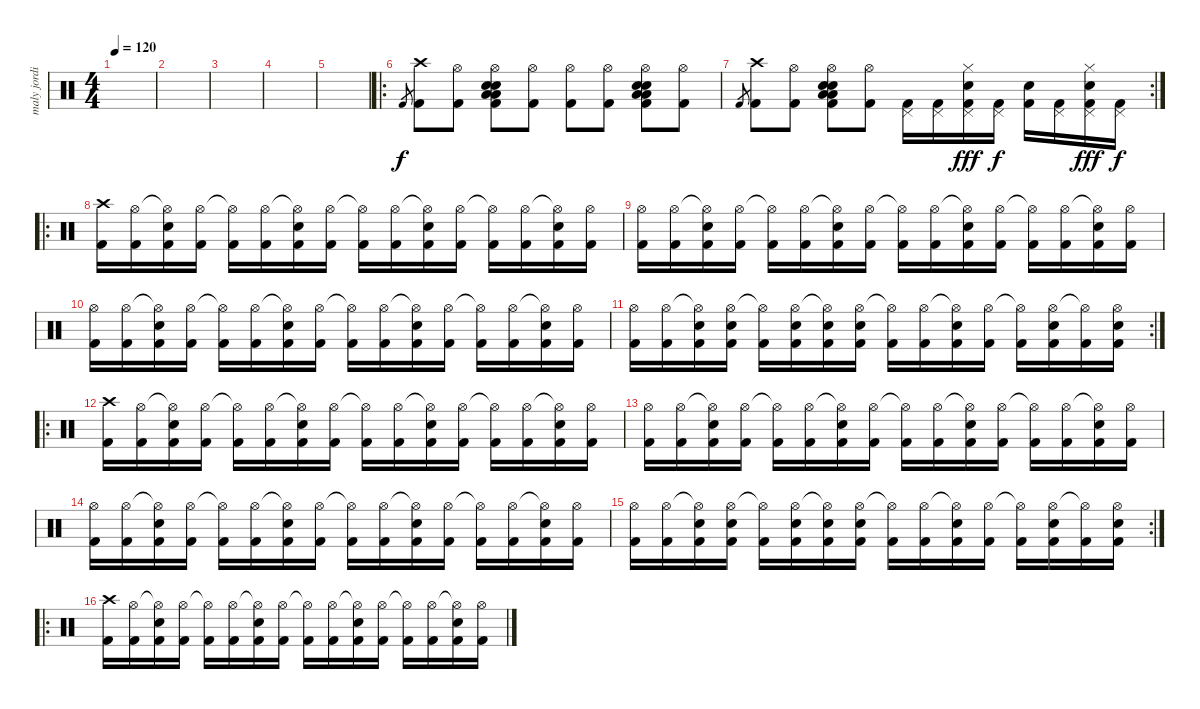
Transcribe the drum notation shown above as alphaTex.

\track ("maly jordison - Battery" "maly jordi") {instrument percussion}
\staff {score}
\articulation defaults
\ts (4 4)
\tempo 120
\clef neutral
\ks c
|
|
|
|
|
\ro "Kick (hit) 2".8{gr}
("Crash high (hit)" "Kick (hit) 2").8 ("Hi-Hat (open)" "Kick (hit) 2").8 ("Hi-Hat (open)" "Low Floor Tom (hit)" "Kick (hit) 2" "Electric Snare (hit)" "Low Floor Tom (hit)" "Electric Snare (hit)").8 ("Hi-Hat (open)" "Kick (hit) 2").8 ("Hi-Hat (open)" "Kick (hit) 2").8 ("Hi-Hat (open)" "Kick (hit) 2").8 ("Hi-Hat (open)" "Low Floor Tom (hit)" "Kick (hit) 2" "Electric Snare (hit)" "Low Floor Tom (hit)" "Electric Snare (hit)").8 ("Hi-Hat (open)" "Kick (hit) 2").8 |
\rc 2 "Kick (hit) 2".8{gr}
("Crash high (hit)" "Kick (hit) 2").8 ("Hi-Hat (open)" "Kick (hit) 2").8 ("Hi-Hat (open)" "Low Floor Tom (hit)" "Kick (hit) 2" "Electric Snare (hit)" "Low Floor Tom (hit)" "Electric Snare (hit)").8 ("Hi-Hat (open)" "Kick (hit) 2").8 ("Pedal Hi-Hat (hit)" "Kick (hit) 2").16 ("Pedal Hi-Hat (hit)" "Kick (hit) 2").16 ("Pedal Hi-Hat (hit)" "Hi-Hat (closed)" "Electric Snare (hit)" "Kick (hit) 2").16{dy fff} ("Pedal Hi-Hat (hit)" "Kick (hit) 2").16{dy f} ("Snare (hit)" "Kick (hit) 2").16 ("Pedal Hi-Hat (hit)" "Kick (hit) 2").16 ("Pedal Hi-Hat (hit)" "Hi-Hat (closed)" "Electric Snare (hit)" "Kick (hit) 2").16{dy fff} ("Pedal Hi-Hat (hit)" "Kick (hit) 2").16{dy f} |
\ro
("Crash high (hit)" "Kick (hit) 2").16 ("Hi-Hat (open)" "Kick (hit) 2").16 ("Hi-Hat (open)"{t} "Electric Snare (hit)" "Kick (hit) 2").16 ("Hi-Hat (open)" "Kick (hit) 2").16 ("Hi-Hat (open)"{t} "Kick (hit) 2").16 ("Hi-Hat (open)" "Kick (hit) 2").16 ("Hi-Hat (open)"{t} "Electric Snare (hit)" "Kick (hit) 2").16 ("Hi-Hat (open)" "Kick (hit) 2").16 ("Hi-Hat (open)"{t} "Kick (hit) 2").16 ("Hi-Hat (open)" "Kick (hit) 2").16 ("Hi-Hat (open)"{t} "Electric Snare (hit)" "Kick (hit) 2").16 ("Hi-Hat (open)" "Kick (hit) 2").16 ("Hi-Hat (open)"{t} "Kick (hit) 2").16 ("Hi-Hat (open)" "Kick (hit) 2").16 ("Hi-Hat (open)"{t} "Electric Snare (hit)" "Kick (hit) 2").16 ("Hi-Hat (open)" "Kick (hit) 2").16 |
("Hi-Hat (open)" "Kick (hit) 2").16 ("Hi-Hat (open)" "Kick (hit) 2").16 ("Hi-Hat (open)"{t} "Electric Snare (hit)" "Kick (hit) 2").16 ("Hi-Hat (open)" "Kick (hit) 2").16 ("Hi-Hat (open)"{t} "Kick (hit) 2").16 ("Hi-Hat (open)" "Kick (hit) 2").16 ("Hi-Hat (open)"{t} "Electric Snare (hit)" "Kick (hit) 2").16 ("Hi-Hat (open)" "Kick (hit) 2").16 ("Hi-Hat (open)"{t} "Kick (hit) 2").16 ("Hi-Hat (open)" "Kick (hit) 2").16 ("Hi-Hat (open)"{t} "Electric Snare (hit)" "Kick (hit) 2").16 ("Hi-Hat (open)" "Kick (hit) 2").16 ("Hi-Hat (open)"{t} "Kick (hit) 2").16 ("Hi-Hat (open)" "Kick (hit) 2").16 ("Hi-Hat (open)"{t} "Electric Snare (hit)" "Kick (hit) 2").16 ("Hi-Hat (open)" "Kick (hit) 2").16 |
("Hi-Hat (open)" "Kick (hit) 2").16 ("Hi-Hat (open)" "Kick (hit) 2").16 ("Hi-Hat (open)"{t} "Electric Snare (hit)" "Kick (hit) 2").16 ("Hi-Hat (open)" "Kick (hit) 2").16 ("Hi-Hat (open)"{t} "Kick (hit) 2").16 ("Hi-Hat (open)" "Kick (hit) 2").16 ("Hi-Hat (open)"{t} "Electric Snare (hit)" "Kick (hit) 2").16 ("Hi-Hat (open)" "Kick (hit) 2").16 ("Hi-Hat (open)"{t} "Kick (hit) 2").16 ("Hi-Hat (open)" "Kick (hit) 2").16 ("Hi-Hat (open)"{t} "Electric Snare (hit)" "Kick (hit) 2").16 ("Hi-Hat (open)" "Kick (hit) 2").16 ("Hi-Hat (open)"{t} "Kick (hit) 2").16 ("Hi-Hat (open)" "Kick (hit) 2").16 ("Hi-Hat (open)"{t} "Electric Snare (hit)" "Kick (hit) 2").16 ("Hi-Hat (open)" "Kick (hit) 2").16 |
\rc 2
("Hi-Hat (open)" "Kick (hit) 2").16 ("Hi-Hat (open)" "Kick (hit) 2").16 ("Hi-Hat (open)"{t} "Electric Snare (hit)" "Kick (hit) 2").16 ("Hi-Hat (open)" "Electric Snare (hit)" "Kick (hit) 2").16 ("Hi-Hat (open)"{t} "Kick (hit) 2").16 ("Hi-Hat (open)" "Electric Snare (hit)" "Kick (hit) 2").16 ("Hi-Hat (open)"{t} "Electric Snare (hit)" "Kick (hit) 2").16 ("Hi-Hat (open)" "Electric Snare (hit)" "Kick (hit) 2").16 ("Hi-Hat (open)"{t} "Kick (hit) 2").16 ("Hi-Hat (open)" "Kick (hit) 2").16 ("Hi-Hat (open)"{t} "Electric Snare (hit)" "Kick (hit) 2").16 ("Hi-Hat (open)" "Kick (hit) 2").16 ("Hi-Hat (open)"{t} "Kick (hit) 2").16 ("Hi-Hat (open)" "Electric Snare (hit)" "Kick (hit) 2").16 ("Hi-Hat (open)"{t} "Kick (hit) 2").16 ("Hi-Hat (open)" "Electric Snare (hit)" "Kick (hit) 2").16 |
\ro
("Crash high (hit)" "Kick (hit) 2").16 ("Hi-Hat (open)" "Kick (hit) 2").16 ("Hi-Hat (open)"{t} "Electric Snare (hit)" "Kick (hit) 2").16 ("Hi-Hat (open)" "Kick (hit) 2").16 ("Hi-Hat (open)"{t} "Kick (hit) 2").16 ("Hi-Hat (open)" "Kick (hit) 2").16 ("Hi-Hat (open)"{t} "Electric Snare (hit)" "Kick (hit) 2").16 ("Hi-Hat (open)" "Kick (hit) 2").16 ("Hi-Hat (open)"{t} "Kick (hit) 2").16 ("Hi-Hat (open)" "Kick (hit) 2").16 ("Hi-Hat (open)"{t} "Electric Snare (hit)" "Kick (hit) 2").16 ("Hi-Hat (open)" "Kick (hit) 2").16 ("Hi-Hat (open)"{t} "Kick (hit) 2").16 ("Hi-Hat (open)" "Kick (hit) 2").16 ("Hi-Hat (open)"{t} "Electric Snare (hit)" "Kick (hit) 2").16 ("Hi-Hat (open)" "Kick (hit) 2").16 |
("Hi-Hat (open)" "Kick (hit) 2").16 ("Hi-Hat (open)" "Kick (hit) 2").16 ("Hi-Hat (open)"{t} "Electric Snare (hit)" "Kick (hit) 2").16 ("Hi-Hat (open)" "Kick (hit) 2").16 ("Hi-Hat (open)"{t} "Kick (hit) 2").16 ("Hi-Hat (open)" "Kick (hit) 2").16 ("Hi-Hat (open)"{t} "Electric Snare (hit)" "Kick (hit) 2").16 ("Hi-Hat (open)" "Kick (hit) 2").16 ("Hi-Hat (open)"{t} "Kick (hit) 2").16 ("Hi-Hat (open)" "Kick (hit) 2").16 ("Hi-Hat (open)"{t} "Electric Snare (hit)" "Kick (hit) 2").16 ("Hi-Hat (open)" "Kick (hit) 2").16 ("Hi-Hat (open)"{t} "Kick (hit) 2").16 ("Hi-Hat (open)" "Kick (hit) 2").16 ("Hi-Hat (open)"{t} "Electric Snare (hit)" "Kick (hit) 2").16 ("Hi-Hat (open)" "Kick (hit) 2").16 |
("Hi-Hat (open)" "Kick (hit) 2").16 ("Hi-Hat (open)" "Kick (hit) 2").16 ("Hi-Hat (open)"{t} "Electric Snare (hit)" "Kick (hit) 2").16 ("Hi-Hat (open)" "Kick (hit) 2").16 ("Hi-Hat (open)"{t} "Kick (hit) 2").16 ("Hi-Hat (open)" "Kick (hit) 2").16 ("Hi-Hat (open)"{t} "Electric Snare (hit)" "Kick (hit) 2").16 ("Hi-Hat (open)" "Kick (hit) 2").16 ("Hi-Hat (open)"{t} "Kick (hit) 2").16 ("Hi-Hat (open)" "Kick (hit) 2").16 ("Hi-Hat (open)"{t} "Electric Snare (hit)" "Kick (hit) 2").16 ("Hi-Hat (open)" "Kick (hit) 2").16 ("Hi-Hat (open)"{t} "Kick (hit) 2").16 ("Hi-Hat (open)" "Kick (hit) 2").16 ("Hi-Hat (open)"{t} "Electric Snare (hit)" "Kick (hit) 2").16 ("Hi-Hat (open)" "Kick (hit) 2").16 |
\rc 2
("Hi-Hat (open)" "Kick (hit) 2").16 ("Hi-Hat (open)" "Kick (hit) 2").16 ("Hi-Hat (open)"{t} "Electric Snare (hit)" "Kick (hit) 2").16 ("Hi-Hat (open)" "Electric Snare (hit)" "Kick (hit) 2").16 ("Hi-Hat (open)"{t} "Kick (hit) 2").16 ("Hi-Hat (open)" "Electric Snare (hit)" "Kick (hit) 2").16 ("Hi-Hat (open)"{t} "Electric Snare (hit)" "Kick (hit) 2").16 ("Hi-Hat (open)" "Electric Snare (hit)" "Kick (hit) 2").16 ("Hi-Hat (open)"{t} "Kick (hit) 2").16 ("Hi-Hat (open)" "Kick (hit) 2").16 ("Hi-Hat (open)"{t} "Electric Snare (hit)" "Kick (hit) 2").16 ("Hi-Hat (open)" "Kick (hit) 2").16 ("Hi-Hat (open)"{t} "Kick (hit) 2").16 ("Hi-Hat (open)" "Electric Snare (hit)" "Kick (hit) 2").16 ("Hi-Hat (open)"{t} "Kick (hit) 2").16 ("Hi-Hat (open)" "Electric Snare (hit)" "Kick (hit) 2").16 |
\ro
("Crash high (hit)" "Kick (hit) 2").16 ("Hi-Hat (open)" "Kick (hit) 2").16 ("Hi-Hat (open)"{t} "Electric Snare (hit)" "Kick (hit) 2").16 ("Hi-Hat (open)" "Kick (hit) 2").16 ("Hi-Hat (open)"{t} "Kick (hit) 2").16 ("Hi-Hat (open)" "Kick (hit) 2").16 ("Hi-Hat (open)"{t} "Electric Snare (hit)" "Kick (hit) 2").16 ("Hi-Hat (open)" "Kick (hit) 2").16 ("Hi-Hat (open)"{t} "Kick (hit) 2").16 ("Hi-Hat (open)" "Kick (hit) 2").16 ("Hi-Hat (open)"{t} "Electric Snare (hit)" "Kick (hit) 2").16 ("Hi-Hat (open)" "Kick (hit) 2").16 ("Hi-Hat (open)"{t} "Kick (hit) 2").16 ("Hi-Hat (open)" "Kick (hit) 2").16 ("Hi-Hat (open)"{t} "Electric Snare (hit)" "Kick (hit) 2").16 ("Hi-Hat (open)" "Kick (hit) 2").16
